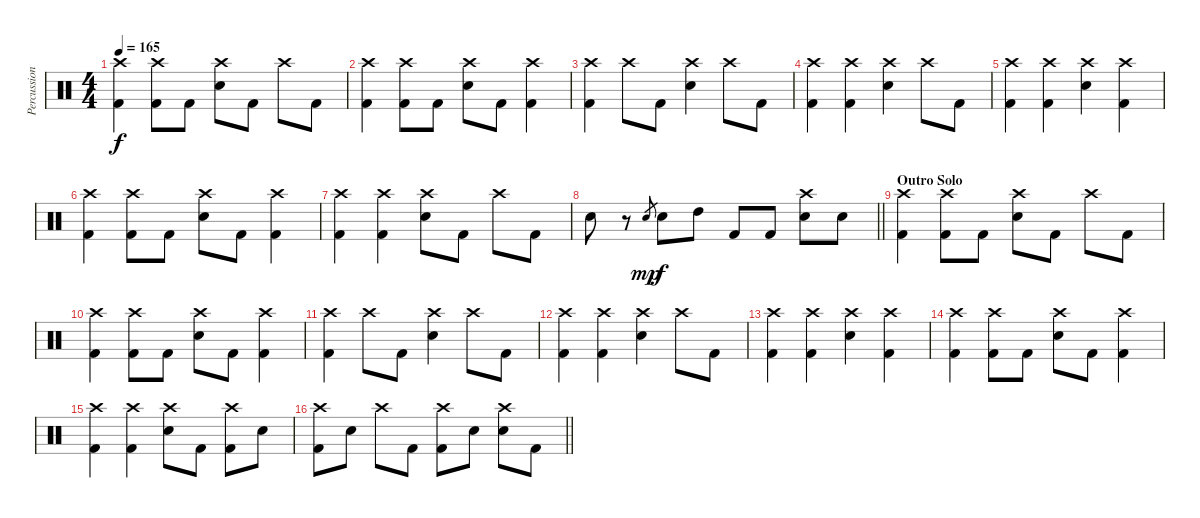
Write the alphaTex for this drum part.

\track ("Percussion" "Percussion") {instrument percussion}
\staff {score}
\articulation defaults
\ts (4 4)
\tempo 165
\clef neutral
\ks c
("Crash high (hit)" "Kick (hit) 2").4{dy f} ("Crash high (hit)" "Kick (hit) 2").8 "Kick (hit) 2".8 ("Crash high (hit)" "Electric Snare (hit)").8 "Kick (hit) 2".8 "Crash high (hit)".8 "Kick (hit) 2".8 |
("Crash high (hit)" "Kick (hit) 2").4 ("Crash high (hit)" "Kick (hit) 2").8 "Kick (hit) 2".8 ("Crash high (hit)" "Electric Snare (hit)").8 "Kick (hit) 2".8 ("Crash high (hit)" "Kick (hit) 2").4 |
("Crash high (hit)" "Kick (hit) 2").4 "Crash high (hit)".8 "Kick (hit) 2".8 ("Crash high (hit)" "Electric Snare (hit)").4 "Crash high (hit)".8 "Kick (hit) 2".8 |
("Crash high (hit)" "Kick (hit) 2").4 ("Crash high (hit)" "Kick (hit) 2").4 ("Crash high (hit)" "Electric Snare (hit)").4 "Crash high (hit)".8 "Kick (hit) 2".8 |
("Crash high (hit)" "Kick (hit) 2").4 ("Crash high (hit)" "Kick (hit) 2").4 ("Crash high (hit)" "Electric Snare (hit)").4 ("Crash high (hit)" "Kick (hit) 2").4 |
("Crash high (hit)" "Kick (hit) 2").4 ("Crash high (hit)" "Kick (hit) 2").8 "Kick (hit) 2".8 ("Crash high (hit)" "Electric Snare (hit)").8 "Kick (hit) 2".8 ("Crash high (hit)" "Kick (hit) 2").4 |
("Crash high (hit)" "Kick (hit) 2").4 ("Crash high (hit)" "Kick (hit) 2").4 ("Crash high (hit)" "Electric Snare (hit)").8 "Kick (hit) 2".8 "Crash high (hit)".8 "Kick (hit) 2".8 |
\barLineRight lightlight "Electric Snare (hit)".8
r.8 "Electric Snare (hit)".8{gr dy mp} "Electric Snare (hit)".8{dy f} "High Tom (hit)".8 "Kick (hit) 2".8 "Kick (hit) 2".8 ("Crash high (hit)" "Electric Snare (hit)").8 "Electric Snare (hit)".8 |
\section ("" "Outro Solo")
("Crash high (hit)" "Kick (hit) 2").4 ("Crash high (hit)" "Kick (hit) 2").8 "Kick (hit) 2".8 ("Crash high (hit)" "Electric Snare (hit)").8 "Kick (hit) 2".8 "Crash high (hit)".8 "Kick (hit) 2".8 |
("Crash high (hit)" "Kick (hit) 2").4 ("Crash high (hit)" "Kick (hit) 2").8 "Kick (hit) 2".8 ("Crash high (hit)" "Electric Snare (hit)").8 "Kick (hit) 2".8 ("Crash high (hit)" "Kick (hit) 2").4 |
("Crash high (hit)" "Kick (hit) 2").4 "Crash high (hit)".8 "Kick (hit) 2".8 ("Crash high (hit)" "Electric Snare (hit)").4 "Crash high (hit)".8 "Kick (hit) 2".8 |
("Crash high (hit)" "Kick (hit) 2").4 ("Crash high (hit)" "Kick (hit) 2").4 ("Crash high (hit)" "Electric Snare (hit)").4 "Crash high (hit)".8 "Kick (hit) 2".8 |
("Crash high (hit)" "Kick (hit) 2").4 ("Crash high (hit)" "Kick (hit) 2").4 ("Crash high (hit)" "Electric Snare (hit)").4 ("Crash high (hit)" "Kick (hit) 2").4 |
("Crash high (hit)" "Kick (hit) 2").4 ("Crash high (hit)" "Kick (hit) 2").8 "Kick (hit) 2".8 ("Crash high (hit)" "Electric Snare (hit)").8 "Kick (hit) 2".8 ("Crash high (hit)" "Kick (hit) 2").4 |
("Crash high (hit)" "Kick (hit) 2").4 ("Crash high (hit)" "Kick (hit) 2").4 ("Crash high (hit)" "Electric Snare (hit)").8 "Kick (hit) 2".8 ("Crash high (hit)" "Kick (hit) 2").8 "Electric Snare (hit)".8 |
\barLineRight lightlight
("Crash high (hit)" "Kick (hit) 2").8 "Electric Snare (hit)".8 "Crash high (hit)".8 "Kick (hit) 2".8 ("Crash high (hit)" "Kick (hit) 2").8 "Electric Snare (hit)".8 ("Crash high (hit)" "Electric Snare (hit)").8 "Kick (hit) 2".8
